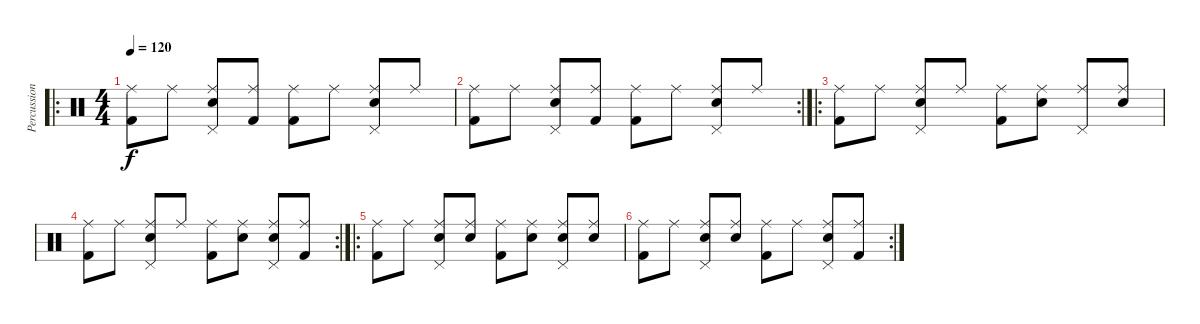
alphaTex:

\track ("Percussion" "Percussion") {instrument percussion}
\staff {score}
\articulation defaults
\ro
\ts (4 4)
\tempo 120
\clef neutral
\ks c
("Ride (middle)" "Kick (hit) 2").8{dy f} "Ride (middle)".8 ("Ride (middle)" "Electric Snare (hit)" "Pedal Hi-Hat (hit)").8 ("Ride (middle)" "Kick (hit) 2").8 ("Ride (middle)" "Kick (hit) 2").8 "Ride (middle)".8 ("Ride (middle)" "Electric Snare (hit)" "Pedal Hi-Hat (hit)").8 "Ride (middle)".8 |
\rc 2
("Ride (middle)" "Kick (hit) 2").8 "Ride (middle)".8 ("Ride (middle)" "Electric Snare (hit)" "Pedal Hi-Hat (hit)").8 ("Ride (middle)" "Kick (hit) 2").8 ("Ride (middle)" "Kick (hit) 2").8 "Ride (middle)".8 ("Ride (middle)" "Electric Snare (hit)" "Pedal Hi-Hat (hit)").8 "Ride (middle)".8 |
\ro
("Ride (middle)" "Kick (hit) 2").8 "Ride (middle)".8 ("Ride (middle)" "Electric Snare (hit)" "Pedal Hi-Hat (hit)").8 "Ride (middle)".8 ("Ride (middle)" "Kick (hit) 2").8 ("Ride (middle)" "Electric Snare (hit)").8 ("Ride (middle)" "Pedal Hi-Hat (hit)").8 ("Ride (middle)" "Electric Snare (hit)").8 |
\rc 2
("Ride (middle)" "Kick (hit) 2").8 "Ride (middle)".8 ("Ride (middle)" "Electric Snare (hit)" "Pedal Hi-Hat (hit)").8 "Ride (middle)".8 ("Ride (middle)" "Kick (hit) 2").8 ("Ride (middle)" "Electric Snare (hit)").8 ("Ride (middle)" "Electric Snare (hit)" "Pedal Hi-Hat (hit)").8 ("Ride (middle)" "Kick (hit) 2").8 |
\ro
("Ride (middle)" "Kick (hit) 2").8 "Ride (middle)".8 ("Ride (middle)" "Electric Snare (hit)" "Pedal Hi-Hat (hit)").8 ("Ride (middle)" "Electric Snare (hit)").8 ("Ride (middle)" "Kick (hit) 2").8 ("Ride (middle)" "Electric Snare (hit)").8 ("Ride (middle)" "Electric Snare (hit)" "Pedal Hi-Hat (hit)").8 ("Ride (middle)" "Electric Snare (hit)").8 |
\rc 2
("Ride (middle)" "Kick (hit) 2").8 "Ride (middle)".8 ("Ride (middle)" "Electric Snare (hit)" "Pedal Hi-Hat (hit)").8 ("Ride (middle)" "Electric Snare (hit)").8 ("Ride (middle)" "Kick (hit) 2").8 "Ride (middle)".8 ("Ride (middle)" "Electric Snare (hit)" "Pedal Hi-Hat (hit)").8 ("Ride (middle)" "Kick (hit) 2").8
